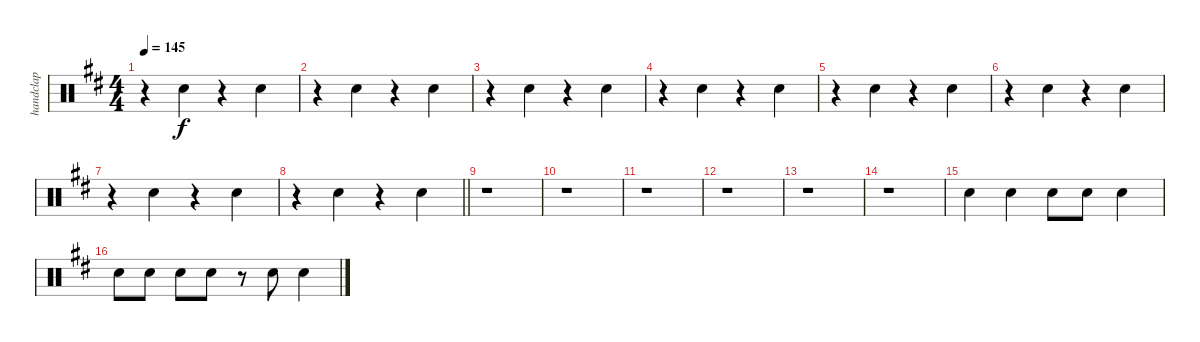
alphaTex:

\track ("handclap" "handclap") {instrument percussion}
\staff {score}
\articulation defaults
\ts (4 4)
\tempo 145
\clef neutral
\ks d
r.4{dy f} "Hand Clap (hit)".4 r.4 "Hand Clap (hit)".4 |
r.4 "Hand Clap (hit)".4 r.4 "Hand Clap (hit)".4 |
r.4 "Hand Clap (hit)".4 r.4 "Hand Clap (hit)".4 |
r.4 "Hand Clap (hit)".4 r.4 "Hand Clap (hit)".4 |
r.4 "Hand Clap (hit)".4 r.4 "Hand Clap (hit)".4 |
r.4 "Hand Clap (hit)".4 r.4 "Hand Clap (hit)".4 |
r.4 "Hand Clap (hit)".4 r.4 "Hand Clap (hit)".4 |
\barLineRight lightlight
r.4 "Hand Clap (hit)".4 r.4 "Hand Clap (hit)".4 |
r.1 |
r.1 |
r.1 |
r.1 |
r.1 |
r.1 |
"Hand Clap (hit)".4 "Hand Clap (hit)".4 "Hand Clap (hit)".8 "Hand Clap (hit)".8 "Hand Clap (hit)".4 |
"Hand Clap (hit)".8 "Hand Clap (hit)".8 "Hand Clap (hit)".8 "Hand Clap (hit)".8 r.8 "Hand Clap (hit)".8 "Hand Clap (hit)".4
